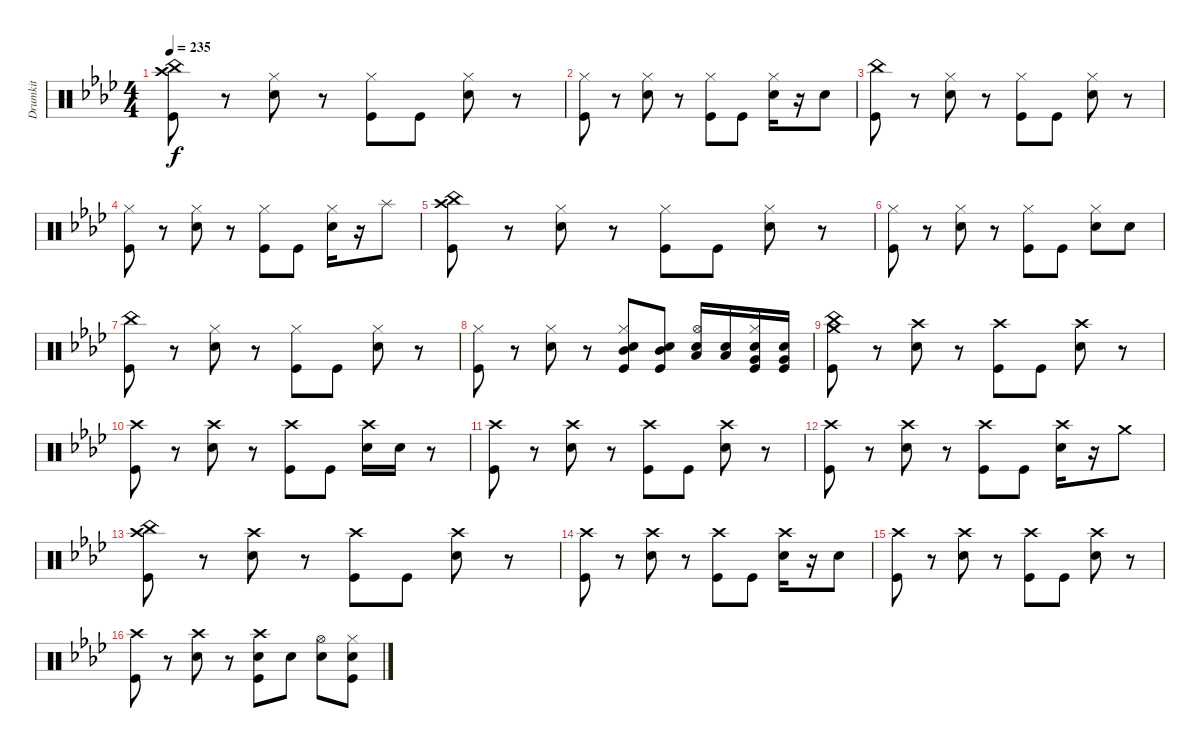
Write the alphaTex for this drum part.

\track ("Drumkit" "Drumkit") {instrument percussion}
\staff {score}
\articulation defaults
\ts (4 4)
\tempo 235
\clef neutral
\ks ab
("Crash high (hit)" "China (hit)" "Kick (hit)").8{dy f} r.8 ("Hi-Hat (closed)" "Electric Snare (hit)").8 r.8 ("Hi-Hat (closed)" "Kick (hit)").8 "Kick (hit)".8 ("Hi-Hat (closed)" "Electric Snare (hit)").8 r.8 |
("Hi-Hat (closed)" "Kick (hit)").8 r.8 ("Hi-Hat (closed)" "Electric Snare (hit)").8 r.8 ("Hi-Hat (closed)" "Kick (hit)").8 "Kick (hit)".8 ("Hi-Hat (closed)" "Electric Snare (hit)").16 r.16 "Electric Snare (hit)".8 |
("China (hit)" "Kick (hit)").8 r.8 ("Hi-Hat (closed)" "Electric Snare (hit)").8 r.8 ("Hi-Hat (closed)" "Kick (hit)").8 "Kick (hit)".8 ("Hi-Hat (closed)" "Electric Snare (hit)").8 r.8 |
("Hi-Hat (closed)" "Kick (hit)").8 r.8 ("Hi-Hat (closed)" "Electric Snare (hit)").8 r.8 ("Hi-Hat (closed)" "Kick (hit)").8 "Kick (hit)".8 ("Hi-Hat (closed)" "Electric Snare (hit)").16 r.16 "Splash (hit)".8 |
("Crash high (hit)" "China (hit)" "Kick (hit)").8 r.8 ("Hi-Hat (closed)" "Electric Snare (hit)").8 r.8 ("Hi-Hat (closed)" "Kick (hit)").8 "Kick (hit)".8 ("Hi-Hat (closed)" "Electric Snare (hit)").8 r.8 |
("Hi-Hat (closed)" "Kick (hit)").8 r.8 ("Hi-Hat (closed)" "Electric Snare (hit)").8 r.8 ("Hi-Hat (closed)" "Kick (hit)").8 "Kick (hit)".8 ("Hi-Hat (closed)" "Electric Snare (hit)").8 "Electric Snare (hit)".8 |
("China (hit)" "Kick (hit)").8 r.8 ("Hi-Hat (closed)" "Electric Snare (hit)").8 r.8 ("Hi-Hat (closed)" "Kick (hit)").8 "Kick (hit)".8 ("Hi-Hat (closed)" "Electric Snare (hit)").8 r.8 |
("Hi-Hat (closed)" "Kick (hit)").8 r.8 ("Hi-Hat (closed)" "Electric Snare (hit)").8 r.8 ("Hi-Hat (closed)" "Mid Tom (hit)" "Electric Snare (hit)" "Kick (hit)").8 ("Mid Tom (hit)" "Electric Snare (hit)" "Kick (hit)").8 ("Hi-Hat (open)" "Low Tom (hit)" "Electric Snare (hit)").16 ("Low Tom (hit)" "Electric Snare (hit)").16 ("Hi-Hat (closed)" "Very Low Tom (hit)" "Electric Snare (hit)" "Kick (hit)").16 ("Very Low Tom (hit)" "Electric Snare (hit)" "Kick (hit)").16 |
("Crash medium (hit)" "China (hit)" "Kick (hit)").8 r.8 ("Crash high (hit)" "Electric Snare (hit)").8 r.8 ("Crash high (hit)" "Kick (hit)").8 "Kick (hit)".8 ("Crash high (hit)" "Electric Snare (hit)").8 r.8 |
("Crash high (hit)" "Kick (hit)").8 r.8 ("Crash high (hit)" "Electric Snare (hit)").8 r.8 ("Crash high (hit)" "Kick (hit)").8 "Kick (hit)".8 ("Crash high (hit)" "Electric Snare (hit)").16 "Electric Snare (hit)".16 r.8 |
("Crash high (hit)" "Kick (hit)").8 r.8 ("Crash high (hit)" "Electric Snare (hit)").8 r.8 ("Crash high (hit)" "Kick (hit)").8 "Kick (hit)".8 ("Crash high (hit)" "Electric Snare (hit)").8 r.8 |
("Crash high (hit)" "Kick (hit)").8 r.8 ("Crash high (hit)" "Electric Snare (hit)").8 r.8 ("Crash high (hit)" "Kick (hit)").8 "Kick (hit)".8 ("Crash high (hit)" "Electric Snare (hit)").16 r.16 "Crash medium (hit)".8 |
("Crash high (hit)" "China (hit)" "Kick (hit)").8 r.8 ("Crash high (hit)" "Electric Snare (hit)").8 r.8 ("Crash high (hit)" "Kick (hit)").8 "Kick (hit)".8 ("Crash high (hit)" "Electric Snare (hit)").8 r.8 |
("Crash high (hit)" "Kick (hit)").8 r.8 ("Crash high (hit)" "Electric Snare (hit)").8 r.8 ("Crash high (hit)" "Kick (hit)").8 "Kick (hit)".8 ("Crash high (hit)" "Electric Snare (hit)").16 r.16 "Electric Snare (hit)".8 |
("Crash high (hit)" "Kick (hit)").8 r.8 ("Crash high (hit)" "Electric Snare (hit)").8 r.8 ("Crash high (hit)" "Kick (hit)").8 "Kick (hit)".8 ("Crash high (hit)" "Electric Snare (hit)").8 r.8 |
("Crash high (hit)" "Kick (hit)").8 r.8 ("Crash high (hit)" "Electric Snare (hit)").8 r.8 ("Crash high (hit)" "Electric Snare (hit)" "Kick (hit)").8 "Electric Snare (hit)".8 ("Hi-Hat (open)" "Electric Snare (hit)").8 ("Hi-Hat (closed)" "Electric Snare (hit)" "Kick (hit)").8
